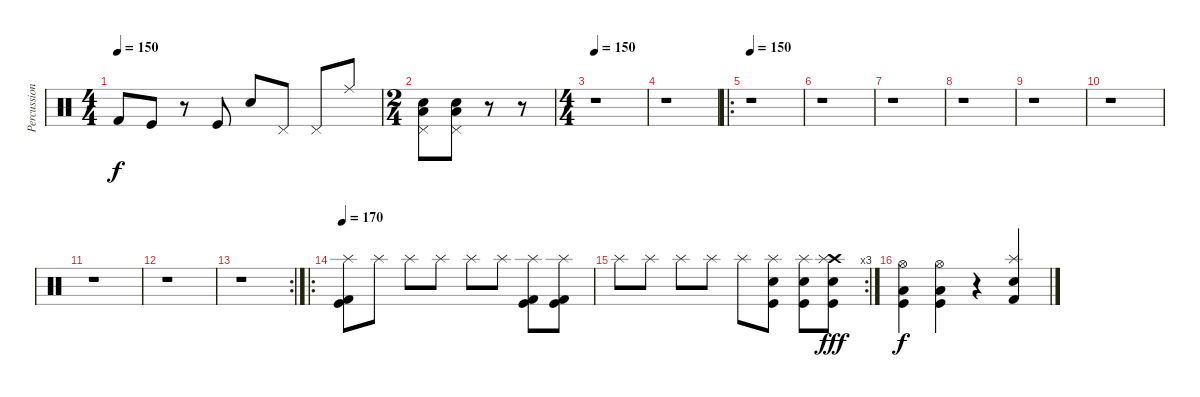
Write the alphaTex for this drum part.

\track ("Percussion" "Percussion") {instrument percussion}
\staff {score}
\articulation defaults
\ts (4 4)
\tempo 150
\clef neutral
\ks c "Kick (hit) 2".8{dy f} "Kick (hit)".8
r.8 "Kick (hit)".8 "Electric Snare (hit)".8 "Pedal Hi-Hat (hit)".8 "Pedal Hi-Hat (hit)".8 "Ride (middle)".8 |
\ts (2 4)
("Electric Snare (hit)" "Low Tom (hit)" "Pedal Hi-Hat (hit)").8 ("Electric Snare (hit)" "Low Tom (hit)" "Pedal Hi-Hat (hit)").8 r.8 r.8 |
\ts (4 4)
\tempo 150
r.1 |
r.1 |
\ro
\tempo 150
r.1 |
r.1 |
r.1 |
r.1 |
r.1 |
r.1 |
r.1 |
r.1 |
\rc 2
r.1 |
\ro
\tempo 170
("Splash (hit)" "Kick (hit) 2" "Kick (hit)").8{volume 13} "Splash (hit)".8 "Splash (hit)".8 "Splash (hit)".8 "Splash (hit)".8 "Splash (hit)".8 ("Splash (hit)" "Kick (hit)" "Kick (hit) 2").8 ("Splash (hit)" "Kick (hit)" "Kick (hit) 2").8 |
\rc 3 "Splash (hit)".8 "Splash (hit)".8 "Splash (hit)".8 "Splash (hit)".8 "Splash (hit)".8
("Splash (hit)" "Snare (hit) 2" "Kick (hit)").8 ("Splash (hit)" "Snare (hit) 2" "Kick (hit)").8 ("Crash high (hit)" "Splash (hit)" "Snare (hit) 2" "Kick (hit)").8{dy fff} |
("Hi-Hat (open)" "Low Tom (hit)" "Kick (hit)").4{dy f} ("Hi-Hat (open)" "Low Tom (hit)" "Kick (hit)").4 r.4 ("Splash (hit)" "Snare (hit) 2" "Kick (hit) 2").4
